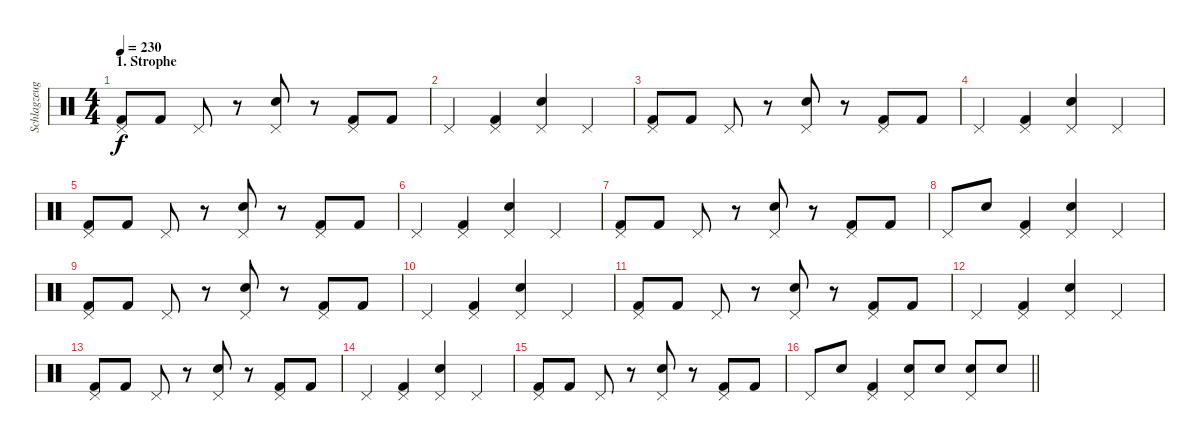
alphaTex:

\track ("Schlagzeug" "Schlagzeug") {instrument percussion}
\staff {score}
\articulation defaults
\ts (4 4)
\section ("" "1. Strophe")
\tempo 230
\clef neutral
\ks c
("Pedal Hi-Hat (hit)" "Kick (hit) 2").8{dy f} "Kick (hit) 2".8 "Pedal Hi-Hat (hit)".8 r.8 ("Pedal Hi-Hat (hit)" "Snare (hit) 2").8 r.8 ("Pedal Hi-Hat (hit)" "Kick (hit) 2").8 "Kick (hit) 2".8 |
"Pedal Hi-Hat (hit)".4 ("Pedal Hi-Hat (hit)" "Kick (hit) 2").4 ("Pedal Hi-Hat (hit)" "Snare (hit) 2").4 "Pedal Hi-Hat (hit)".4 |
("Pedal Hi-Hat (hit)" "Kick (hit) 2").8 "Kick (hit) 2".8 "Pedal Hi-Hat (hit)".8 r.8 ("Pedal Hi-Hat (hit)" "Snare (hit) 2").8 r.8 ("Pedal Hi-Hat (hit)" "Kick (hit) 2").8 "Kick (hit) 2".8 |
"Pedal Hi-Hat (hit)".4 ("Pedal Hi-Hat (hit)" "Kick (hit) 2").4 ("Pedal Hi-Hat (hit)" "Snare (hit) 2").4 "Pedal Hi-Hat (hit)".4 |
("Pedal Hi-Hat (hit)" "Kick (hit) 2").8 "Kick (hit) 2".8 "Pedal Hi-Hat (hit)".8 r.8 ("Pedal Hi-Hat (hit)" "Snare (hit) 2").8 r.8 ("Pedal Hi-Hat (hit)" "Kick (hit) 2").8 "Kick (hit) 2".8 |
"Pedal Hi-Hat (hit)".4 ("Pedal Hi-Hat (hit)" "Kick (hit) 2").4 ("Pedal Hi-Hat (hit)" "Snare (hit) 2").4 "Pedal Hi-Hat (hit)".4 |
("Pedal Hi-Hat (hit)" "Kick (hit) 2").8 "Kick (hit) 2".8 "Pedal Hi-Hat (hit)".8 r.8 ("Pedal Hi-Hat (hit)" "Snare (hit) 2").8 r.8 ("Pedal Hi-Hat (hit)" "Kick (hit) 2").8 "Kick (hit) 2".8 |
"Pedal Hi-Hat (hit)".8 "Snare (hit) 2".8 ("Pedal Hi-Hat (hit)" "Kick (hit) 2").4 ("Pedal Hi-Hat (hit)" "Snare (hit) 2").4 "Pedal Hi-Hat (hit)".4 |
("Pedal Hi-Hat (hit)" "Kick (hit) 2").8 "Kick (hit) 2".8 "Pedal Hi-Hat (hit)".8 r.8 ("Pedal Hi-Hat (hit)" "Snare (hit) 2").8 r.8 ("Pedal Hi-Hat (hit)" "Kick (hit) 2").8 "Kick (hit) 2".8 |
"Pedal Hi-Hat (hit)".4 ("Pedal Hi-Hat (hit)" "Kick (hit) 2").4 ("Pedal Hi-Hat (hit)" "Snare (hit) 2").4 "Pedal Hi-Hat (hit)".4 |
("Pedal Hi-Hat (hit)" "Kick (hit) 2").8 "Kick (hit) 2".8 "Pedal Hi-Hat (hit)".8 r.8 ("Pedal Hi-Hat (hit)" "Snare (hit) 2").8 r.8 ("Pedal Hi-Hat (hit)" "Kick (hit) 2").8 "Kick (hit) 2".8 |
"Pedal Hi-Hat (hit)".4 ("Pedal Hi-Hat (hit)" "Kick (hit) 2").4 ("Pedal Hi-Hat (hit)" "Snare (hit) 2").4 "Pedal Hi-Hat (hit)".4 |
("Pedal Hi-Hat (hit)" "Kick (hit) 2").8 "Kick (hit) 2".8 "Pedal Hi-Hat (hit)".8 r.8 ("Pedal Hi-Hat (hit)" "Snare (hit) 2").8 r.8 ("Pedal Hi-Hat (hit)" "Kick (hit) 2").8 "Kick (hit) 2".8 |
"Pedal Hi-Hat (hit)".4 ("Pedal Hi-Hat (hit)" "Kick (hit) 2").4 ("Pedal Hi-Hat (hit)" "Snare (hit) 2").4 "Pedal Hi-Hat (hit)".4 |
("Pedal Hi-Hat (hit)" "Kick (hit) 2").8 "Kick (hit) 2".8 "Pedal Hi-Hat (hit)".8 r.8 ("Pedal Hi-Hat (hit)" "Snare (hit) 2").8 r.8 ("Pedal Hi-Hat (hit)" "Kick (hit) 2").8 "Kick (hit) 2".8 |
\barLineRight lightlight "Pedal Hi-Hat (hit)".8 "Snare (hit) 2".8
("Pedal Hi-Hat (hit)" "Kick (hit) 2").4 ("Pedal Hi-Hat (hit)" "Snare (hit) 2").8 "Snare (hit) 2".8 ("Pedal Hi-Hat (hit)" "Snare (hit) 2").8 "Snare (hit) 2".8
